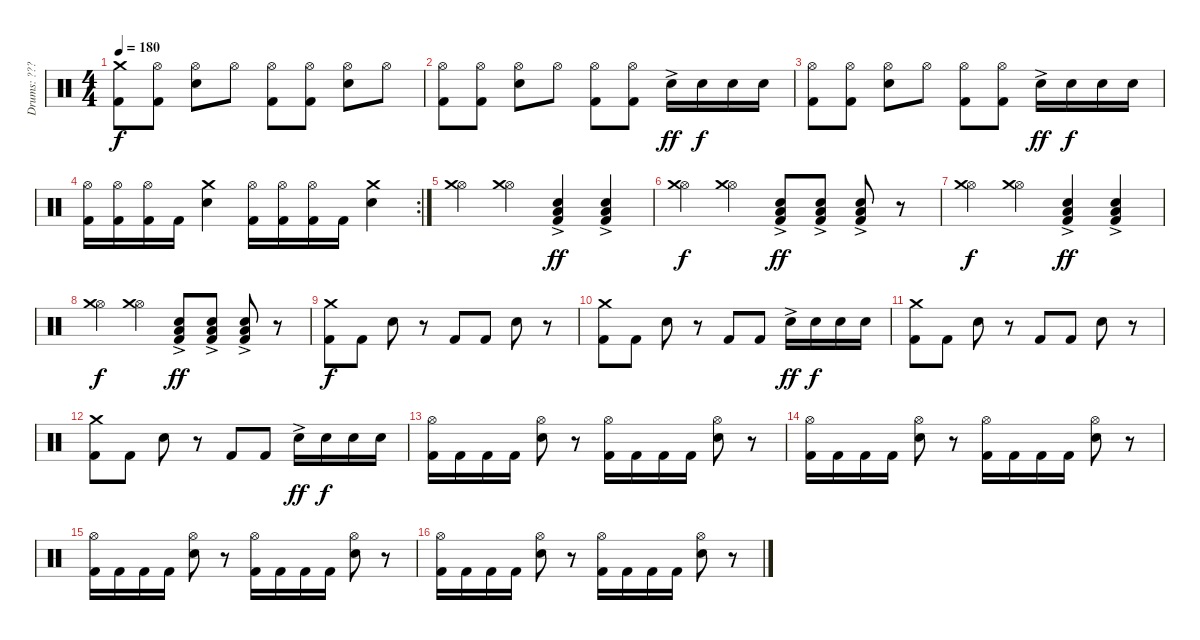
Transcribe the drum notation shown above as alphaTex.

\track ("Drums: ???" "Drums: ???") {instrument percussion}
\staff {score}
\articulation defaults
\ts (4 4)
\tempo 180
\clef neutral
\ks c
("Crash medium (hit)" "Kick (hit) 2").8{dy f} ("Hi-Hat (open)" "Kick (hit) 2").8 ("Hi-Hat (open)" "Snare (hit) 2").8 "Hi-Hat (open)".8 ("Hi-Hat (open)" "Kick (hit) 2").8 ("Hi-Hat (open)" "Kick (hit) 2").8 ("Hi-Hat (open)" "Snare (hit) 2").8 "Hi-Hat (open)".8 |
("Hi-Hat (open)" "Kick (hit) 2").8 ("Hi-Hat (open)" "Kick (hit) 2").8 ("Hi-Hat (open)" "Snare (hit) 2").8 "Hi-Hat (open)".8 ("Hi-Hat (open)" "Kick (hit) 2").8 ("Hi-Hat (open)" "Kick (hit) 2").8 "Snare (hit) 2"{ac}.16{dy ff} "Snare (hit) 2".16{dy f} "Snare (hit) 2".16 "Snare (hit) 2".16 |
("Hi-Hat (open)" "Kick (hit) 2").8 ("Hi-Hat (open)" "Kick (hit) 2").8 ("Hi-Hat (open)" "Snare (hit) 2").8 "Hi-Hat (open)".8 ("Hi-Hat (open)" "Kick (hit) 2").8 ("Hi-Hat (open)" "Kick (hit) 2").8 "Snare (hit) 2"{ac}.16{dy ff} "Snare (hit) 2".16{dy f} "Snare (hit) 2".16 "Snare (hit) 2".16 |
\rc 2
("Hi-Hat (open)" "Kick (hit) 2").16 ("Hi-Hat (open)" "Kick (hit) 2").16 ("Hi-Hat (open)" "Kick (hit) 2").16 "Kick (hit) 2".16 ("Crash medium (hit)" "Snare (hit) 2").4 ("Hi-Hat (open)" "Kick (hit) 2").16 ("Hi-Hat (open)" "Kick (hit) 2").16 ("Hi-Hat (open)" "Kick (hit) 2").16 "Kick (hit) 2".16 ("Crash medium (hit)" "Snare (hit) 2").4 |
("Hi-Hat (open)" "Crash medium (hit)").4 ("Hi-Hat (open)" "Crash medium (hit)").4 ("Snare (hit) 2"{ac} "Low Tom (hit)" "Kick (hit) 2").4{dy ff} ("Snare (hit) 2"{ac} "Low Tom (hit)" "Kick (hit) 2").4 |
("Hi-Hat (open)" "Crash medium (hit)").4{dy f} ("Hi-Hat (open)" "Crash medium (hit)").4 ("Snare (hit) 2"{ac} "Low Tom (hit)" "Kick (hit) 2").8{dy ff} ("Snare (hit) 2"{ac} "Low Tom (hit)" "Kick (hit) 2").8 ("Snare (hit) 2"{ac} "Low Tom (hit)" "Kick (hit) 2").8 r.8 |
("Hi-Hat (open)" "Crash medium (hit)").4{dy f} ("Hi-Hat (open)" "Crash medium (hit)").4 ("Snare (hit) 2"{ac} "Low Tom (hit)" "Kick (hit) 2").4{dy ff} ("Snare (hit) 2"{ac} "Low Tom (hit)" "Kick (hit) 2").4 |
("Hi-Hat (open)" "Crash medium (hit)").4{dy f} ("Hi-Hat (open)" "Crash medium (hit)").4 ("Snare (hit) 2"{ac} "Low Tom (hit)" "Kick (hit) 2").8{dy ff} ("Snare (hit) 2"{ac} "Low Tom (hit)" "Kick (hit) 2").8 ("Snare (hit) 2"{ac} "Low Tom (hit)" "Kick (hit) 2").8 r.8 |
("Crash medium (hit)" "Kick (hit) 2").8{dy f} "Kick (hit) 2".8 "Snare (hit) 2".8 r.8 "Kick (hit) 2".8 "Kick (hit) 2".8 "Snare (hit) 2".8 r.8 |
("Crash medium (hit)" "Kick (hit) 2").8 "Kick (hit) 2".8 "Snare (hit) 2".8 r.8 "Kick (hit) 2".8 "Kick (hit) 2".8 "Snare (hit) 2"{ac}.16{dy ff} "Snare (hit) 2".16{dy f} "Snare (hit) 2".16 "Snare (hit) 2".16 |
("Crash medium (hit)" "Kick (hit) 2").8 "Kick (hit) 2".8 "Snare (hit) 2".8 r.8 "Kick (hit) 2".8 "Kick (hit) 2".8 "Snare (hit) 2".8 r.8 |
("Crash medium (hit)" "Kick (hit) 2").8 "Kick (hit) 2".8 "Snare (hit) 2".8 r.8 "Kick (hit) 2".8 "Kick (hit) 2".8 "Snare (hit) 2"{ac}.16{dy ff} "Snare (hit) 2".16{dy f} "Snare (hit) 2".16 "Snare (hit) 2".16 |
("Hi-Hat (open)" "Kick (hit) 2").16 "Kick (hit) 2".16 "Kick (hit) 2".16 "Kick (hit) 2".16 ("Electric Snare (hit)" "Hi-Hat (open)").8 r.8 ("Kick (hit) 2" "Hi-Hat (open)").16 "Kick (hit) 2".16 "Kick (hit) 2".16 "Kick (hit) 2".16 ("Electric Snare (hit)" "Hi-Hat (open)").8 r.8 |
("Hi-Hat (open)" "Kick (hit) 2").16 "Kick (hit) 2".16 "Kick (hit) 2".16 "Kick (hit) 2".16 ("Electric Snare (hit)" "Hi-Hat (open)").8 r.8 ("Kick (hit) 2" "Hi-Hat (open)").16 "Kick (hit) 2".16 "Kick (hit) 2".16 "Kick (hit) 2".16 ("Electric Snare (hit)" "Hi-Hat (open)").8 r.8 |
("Hi-Hat (open)" "Kick (hit) 2").16 "Kick (hit) 2".16 "Kick (hit) 2".16 "Kick (hit) 2".16 ("Electric Snare (hit)" "Hi-Hat (open)").8 r.8 ("Kick (hit) 2" "Hi-Hat (open)").16 "Kick (hit) 2".16 "Kick (hit) 2".16 "Kick (hit) 2".16 ("Electric Snare (hit)" "Hi-Hat (open)").8 r.8 |
("Hi-Hat (open)" "Kick (hit) 2").16 "Kick (hit) 2".16 "Kick (hit) 2".16 "Kick (hit) 2".16 ("Electric Snare (hit)" "Hi-Hat (open)").8 r.8 ("Kick (hit) 2" "Hi-Hat (open)").16 "Kick (hit) 2".16 "Kick (hit) 2".16 "Kick (hit) 2".16 ("Electric Snare (hit)" "Hi-Hat (open)").8 r.8
